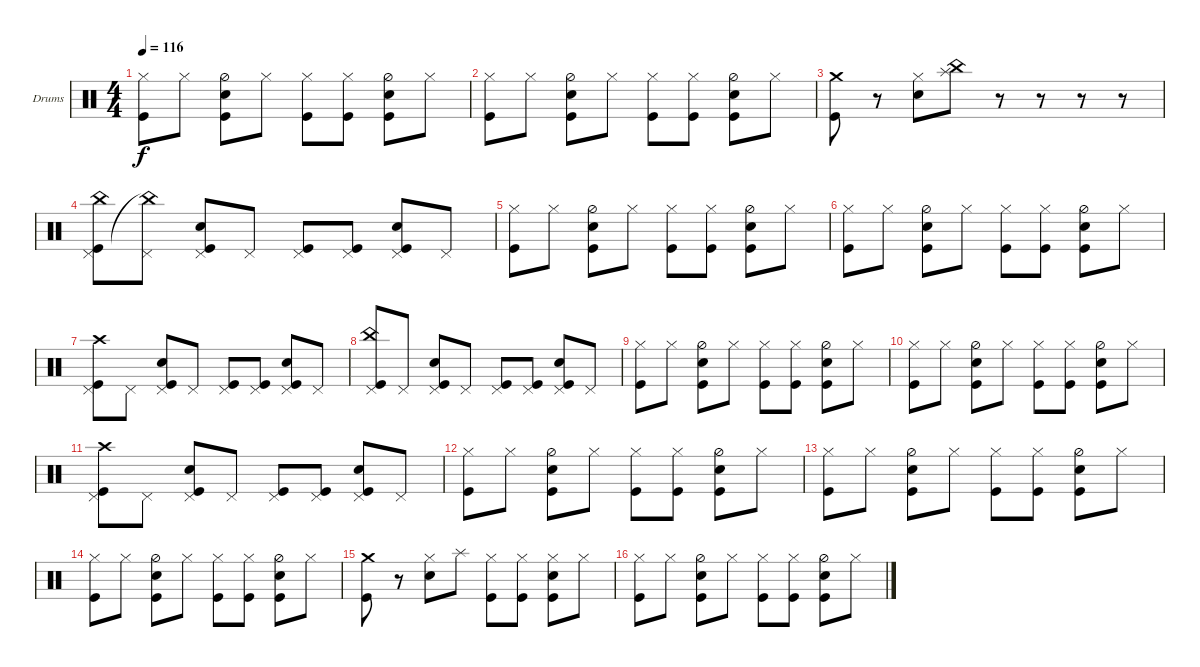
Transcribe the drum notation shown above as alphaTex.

\bracketExtendMode groupsimilarinstruments
\firstSystemTrackNameOrientation horizontal
\otherSystemsTrackNameOrientation horizontal
\track ("Mick Brown" "Drums") {instrument percussion}
\staff {score}
\articulation defaults
\ts (4 4)
\tempo 116
\clef neutral
\ks c
("Kick (hit)" "Hi-Hat (closed)").8{dy f} "Hi-Hat (closed)".8 ("Snare (hit) 2" "Kick (hit)" "Hi-Hat (half)").8 "Hi-Hat (closed)".8 ("Kick (hit)" "Hi-Hat (closed)").8 ("Kick (hit)" "Hi-Hat (closed)").8 ("Snare (hit) 2" "Kick (hit)" "Hi-Hat (half)").8 "Hi-Hat (closed)".8 |
("Kick (hit)" "Hi-Hat (closed)").8 "Hi-Hat (closed)".8 ("Snare (hit) 2" "Kick (hit)" "Hi-Hat (half)").8 "Hi-Hat (closed)".8 ("Kick (hit)" "Hi-Hat (closed)").8 ("Kick (hit)" "Hi-Hat (closed)").8 ("Snare (hit) 2" "Kick (hit)" "Hi-Hat (half)").8 "Hi-Hat (closed)".8 |
("Kick (hit)" "Crash medium (hit)").8 r.8 ("Snare (hit) 2" "Hi-Hat (closed)").8 ("Splash (hit)" "China (hit)").8 r.8 r.8 r.8 r.8 |
("Pedal Hi-Hat (hit)" "Kick (hit)" "China (hit)").8 ("Pedal Hi-Hat (hit)" "China (hit)"{t}).8 ("Pedal Hi-Hat (hit)" "Snare (hit) 2" "Kick (hit)").8 "Pedal Hi-Hat (hit)".8 ("Pedal Hi-Hat (hit)" "Kick (hit)").8 ("Pedal Hi-Hat (hit)" "Kick (hit)").8 ("Pedal Hi-Hat (hit)" "Snare (hit) 2" "Kick (hit)").8 "Pedal Hi-Hat (hit)".8 |
("Kick (hit)" "Hi-Hat (closed)").8 "Hi-Hat (closed)".8 ("Snare (hit) 2" "Kick (hit)" "Hi-Hat (half)").8 "Hi-Hat (closed)".8 ("Kick (hit)" "Hi-Hat (closed)").8 ("Kick (hit)" "Hi-Hat (closed)").8 ("Snare (hit) 2" "Kick (hit)" "Hi-Hat (half)").8 "Hi-Hat (closed)".8 |
("Kick (hit)" "Hi-Hat (closed)").8 "Hi-Hat (closed)".8 ("Snare (hit) 2" "Kick (hit)" "Hi-Hat (half)").8 "Hi-Hat (closed)".8 ("Kick (hit)" "Hi-Hat (closed)").8 ("Kick (hit)" "Hi-Hat (closed)").8 ("Snare (hit) 2" "Kick (hit)" "Hi-Hat (half)").8 "Hi-Hat (closed)".8 |
("Pedal Hi-Hat (hit)" "Kick (hit)" "Crash high (hit)").8 "Pedal Hi-Hat (hit)".8 ("Pedal Hi-Hat (hit)" "Snare (hit) 2" "Kick (hit)").8 "Pedal Hi-Hat (hit)".8 ("Pedal Hi-Hat (hit)" "Kick (hit)").8 ("Pedal Hi-Hat (hit)" "Kick (hit)").8 ("Pedal Hi-Hat (hit)" "Snare (hit) 2" "Kick (hit)").8 "Pedal Hi-Hat (hit)".8 |
("Pedal Hi-Hat (hit)" "Kick (hit)" "China (hit)").8 "Pedal Hi-Hat (hit)".8 ("Pedal Hi-Hat (hit)" "Snare (hit) 2" "Kick (hit)").8 "Pedal Hi-Hat (hit)".8 ("Pedal Hi-Hat (hit)" "Kick (hit)").8 ("Pedal Hi-Hat (hit)" "Kick (hit)").8 ("Pedal Hi-Hat (hit)" "Snare (hit) 2" "Kick (hit)").8 "Pedal Hi-Hat (hit)".8 |
("Kick (hit)" "Hi-Hat (closed)").8 "Hi-Hat (closed)".8 ("Snare (hit) 2" "Kick (hit)" "Hi-Hat (half)").8 "Hi-Hat (closed)".8 ("Kick (hit)" "Hi-Hat (closed)").8 ("Kick (hit)" "Hi-Hat (closed)").8 ("Snare (hit) 2" "Kick (hit)" "Hi-Hat (half)").8 "Hi-Hat (closed)".8 |
("Kick (hit)" "Hi-Hat (closed)").8 "Hi-Hat (closed)".8 ("Snare (hit) 2" "Kick (hit)" "Hi-Hat (half)").8 "Hi-Hat (closed)".8 ("Kick (hit)" "Hi-Hat (closed)").8 ("Kick (hit)" "Hi-Hat (closed)").8 ("Snare (hit) 2" "Kick (hit)" "Hi-Hat (half)").8 "Hi-Hat (closed)".8 |
("Pedal Hi-Hat (hit)" "Kick (hit)" "Crash high (hit)").8 "Pedal Hi-Hat (hit)".8 ("Pedal Hi-Hat (hit)" "Snare (hit) 2" "Kick (hit)").8 "Pedal Hi-Hat (hit)".8 ("Pedal Hi-Hat (hit)" "Kick (hit)").8 ("Pedal Hi-Hat (hit)" "Kick (hit)").8 ("Pedal Hi-Hat (hit)" "Snare (hit) 2" "Kick (hit)").8 "Pedal Hi-Hat (hit)".8 |
("Kick (hit)" "Hi-Hat (closed)").8 "Hi-Hat (closed)".8 ("Snare (hit) 2" "Kick (hit)" "Hi-Hat (half)").8 "Hi-Hat (closed)".8 ("Kick (hit)" "Hi-Hat (closed)").8 ("Kick (hit)" "Hi-Hat (closed)").8 ("Snare (hit) 2" "Kick (hit)" "Hi-Hat (half)").8 "Hi-Hat (closed)".8 |
("Kick (hit)" "Hi-Hat (closed)").8 "Hi-Hat (closed)".8 ("Snare (hit) 2" "Kick (hit)" "Hi-Hat (half)").8 "Hi-Hat (closed)".8 ("Kick (hit)" "Hi-Hat (closed)").8 ("Kick (hit)" "Hi-Hat (closed)").8 ("Snare (hit) 2" "Kick (hit)" "Hi-Hat (half)").8 "Hi-Hat (closed)".8 |
("Kick (hit)" "Hi-Hat (closed)").8 "Hi-Hat (closed)".8 ("Snare (hit) 2" "Kick (hit)" "Hi-Hat (half)").8 "Hi-Hat (closed)".8 ("Kick (hit)" "Hi-Hat (closed)").8 ("Kick (hit)" "Hi-Hat (closed)").8 ("Snare (hit) 2" "Kick (hit)" "Hi-Hat (half)").8 "Hi-Hat (closed)".8 |
("Kick (hit)" "Crash medium (hit)").8 r.8 ("Snare (hit) 2" "Hi-Hat (closed)").8 "Splash (hit)".8 ("Kick (hit)" "Hi-Hat (closed)").8 ("Kick (hit)" "Hi-Hat (closed)").8 ("Snare (hit) 2" "Kick (hit)" "Hi-Hat (closed)").8 "Hi-Hat (closed)".8 |
("Kick (hit)" "Hi-Hat (closed)").8 "Hi-Hat (closed)".8 ("Snare (hit) 2" "Kick (hit)" "Hi-Hat (half)").8 "Hi-Hat (closed)".8 ("Kick (hit)" "Hi-Hat (closed)").8 ("Kick (hit)" "Hi-Hat (closed)").8 ("Snare (hit) 2" "Kick (hit)" "Hi-Hat (half)").8 "Hi-Hat (closed)".8
